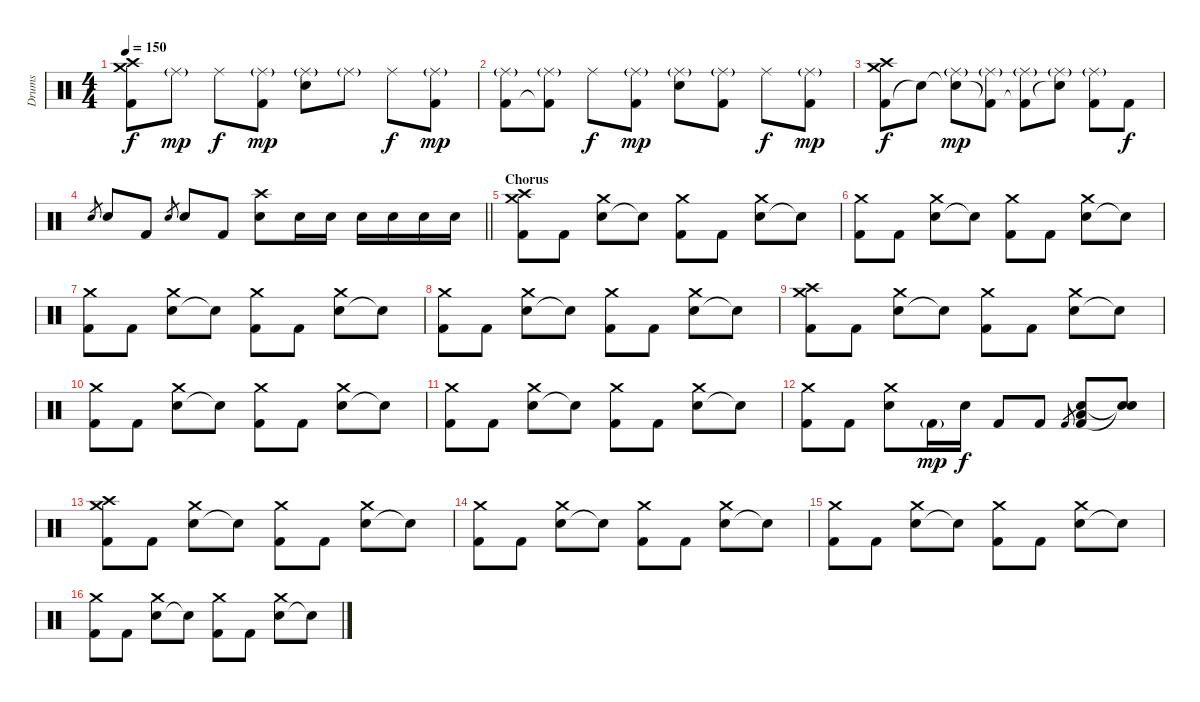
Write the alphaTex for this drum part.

\track ("Drums" "Drums") {instrument percussion}
\staff {score}
\articulation defaults
\ts (4 4)
\tempo 150
\clef neutral
\ks c
("Kick (hit) 2" "Crash medium (hit)" "Crash high (hit)").8{dy f} "Ride (middle)"{g}.8{dy mp} "Ride (middle)".8{dy f} ("Kick (hit) 2" "Ride (middle)"{g}).8{dy mp} ("Electric Snare (hit)" "Ride (middle)"{g}).8 "Ride (middle)"{g}.8 "Ride (middle)".8{dy f} ("Kick (hit) 2" "Ride (middle)"{g}).8{dy mp} |
("Kick (hit) 2" "Ride (middle)"{g}).8 ("Kick (hit) 2"{t} "Ride (middle)"{g}).8 "Ride (middle)".8{dy f} ("Kick (hit) 2" "Ride (middle)"{g}).8{dy mp} ("Electric Snare (hit)" "Ride (middle)"{g}).8 ("Kick (hit) 2" "Ride (middle)"{g}).8 "Ride (middle)".8{dy f} ("Kick (hit) 2" "Ride (middle)"{g}).8{dy mp} |
("Kick (hit) 2" "Crash medium (hit)" "Crash high (hit)").8{dy f} "Snare (hit)"{t}.8 ("Snare (hit)"{t} "Ride (middle)"{g}).8{dy mp} ("Kick (hit) 2"{t} "Ride (middle)"{g}).8 ("Kick (hit) 2"{t} "Ride (middle)"{g}).8 ("Electric Snare (hit)"{t} "Ride (middle)"{g}).8 ("Kick (hit) 2" "Ride (middle)"{g}).8 "Kick (hit) 2".8{dy f} |
\barLineRight lightlight "Electric Snare (hit)".8{gr} "Electric Snare (hit)".8 "Kick (hit) 2".8 "Electric Snare (hit)".8{gr} "Electric Snare (hit)".8 "Kick (hit) 2".8
("Electric Snare (hit)" "Crash high (hit)").8 "Electric Snare (hit)".16 "Electric Snare (hit)".16 "Electric Snare (hit)".16 "Electric Snare (hit)".16 "Electric Snare (hit)".16 "Electric Snare (hit)".16 |
\section ("" "Chorus")
("Kick (hit) 2" "Crash medium (hit)" "Crash high (hit)").8 "Kick (hit) 2".8 ("Electric Snare (hit)" "Crash medium (hit)").8 "Snare (hit)"{t}.8 ("Kick (hit) 2" "Crash medium (hit)").8 "Kick (hit) 2".8 ("Electric Snare (hit)" "Crash medium (hit)").8 "Snare (hit)"{t}.8 |
("Kick (hit) 2" "Crash medium (hit)").8 "Kick (hit) 2".8 ("Electric Snare (hit)" "Crash medium (hit)").8 "Snare (hit)"{t}.8 ("Kick (hit) 2" "Crash medium (hit)").8 "Kick (hit) 2".8 ("Electric Snare (hit)" "Crash medium (hit)").8 "Snare (hit)"{t}.8 |
("Kick (hit) 2" "Crash medium (hit)").8 "Kick (hit) 2".8 ("Electric Snare (hit)" "Crash medium (hit)").8 "Snare (hit)"{t}.8 ("Kick (hit) 2" "Crash medium (hit)").8 "Kick (hit) 2".8 ("Electric Snare (hit)" "Crash medium (hit)").8 "Snare (hit)"{t}.8 |
("Kick (hit) 2" "Crash medium (hit)").8 "Kick (hit) 2".8 ("Electric Snare (hit)" "Crash medium (hit)").8 "Snare (hit)"{t}.8 ("Kick (hit) 2" "Crash medium (hit)").8 "Kick (hit) 2".8 ("Electric Snare (hit)" "Crash medium (hit)").8 "Snare (hit)"{t}.8 |
("Kick (hit) 2" "Crash medium (hit)" "Crash high (hit)").8 "Kick (hit) 2".8 ("Electric Snare (hit)" "Crash medium (hit)").8 "Snare (hit)"{t}.8 ("Kick (hit) 2" "Crash medium (hit)").8 "Kick (hit) 2".8 ("Electric Snare (hit)" "Crash medium (hit)").8 "Snare (hit)"{t}.8 |
("Kick (hit) 2" "Crash medium (hit)").8 "Kick (hit) 2".8 ("Electric Snare (hit)" "Crash medium (hit)").8 "Snare (hit)"{t}.8 ("Kick (hit) 2" "Crash medium (hit)").8 "Kick (hit) 2".8 ("Electric Snare (hit)" "Crash medium (hit)").8 "Snare (hit)"{t}.8 |
("Kick (hit) 2" "Crash medium (hit)").8 "Kick (hit) 2".8 ("Electric Snare (hit)" "Crash medium (hit)").8 "Snare (hit)"{t}.8 ("Kick (hit) 2" "Crash medium (hit)").8 "Kick (hit) 2".8 ("Electric Snare (hit)" "Crash medium (hit)").8 "Snare (hit)"{t}.8 |
("Kick (hit) 2" "Crash medium (hit)").8 "Kick (hit) 2".8 ("Electric Snare (hit)" "Crash medium (hit)").8 "Kick (hit) 2"{g}.16{dy mp} "Electric Snare (hit)".16{dy f} "Kick (hit) 2".8 "Kick (hit) 2".8 "Kick (hit) 2".8{gr} ("Electric Snare (hit)" "Kick (hit) 2" "Low Floor Tom (hit)").8 ("Snare (hit)"{t} "Snare (hit)"{t}).8 |
("Kick (hit) 2" "Crash medium (hit)" "Crash high (hit)").8 "Kick (hit) 2".8 ("Electric Snare (hit)" "Crash medium (hit)").8 "Snare (hit)"{t}.8 ("Kick (hit) 2" "Crash medium (hit)").8 "Kick (hit) 2".8 ("Electric Snare (hit)" "Crash medium (hit)").8 "Snare (hit)"{t}.8 |
("Kick (hit) 2" "Crash medium (hit)").8 "Kick (hit) 2".8 ("Electric Snare (hit)" "Crash medium (hit)").8 "Snare (hit)"{t}.8 ("Kick (hit) 2" "Crash medium (hit)").8 "Kick (hit) 2".8 ("Electric Snare (hit)" "Crash medium (hit)").8 "Snare (hit)"{t}.8 |
("Kick (hit) 2" "Crash medium (hit)").8 "Kick (hit) 2".8 ("Electric Snare (hit)" "Crash medium (hit)").8 "Snare (hit)"{t}.8 ("Kick (hit) 2" "Crash medium (hit)").8 "Kick (hit) 2".8 ("Electric Snare (hit)" "Crash medium (hit)").8 "Snare (hit)"{t}.8 |
("Kick (hit) 2" "Crash medium (hit)").8 "Kick (hit) 2".8 ("Electric Snare (hit)" "Crash medium (hit)").8 "Snare (hit)"{t}.8 ("Kick (hit) 2" "Crash medium (hit)").8 "Kick (hit) 2".8 ("Electric Snare (hit)" "Crash medium (hit)").8 "Snare (hit)"{t}.8
